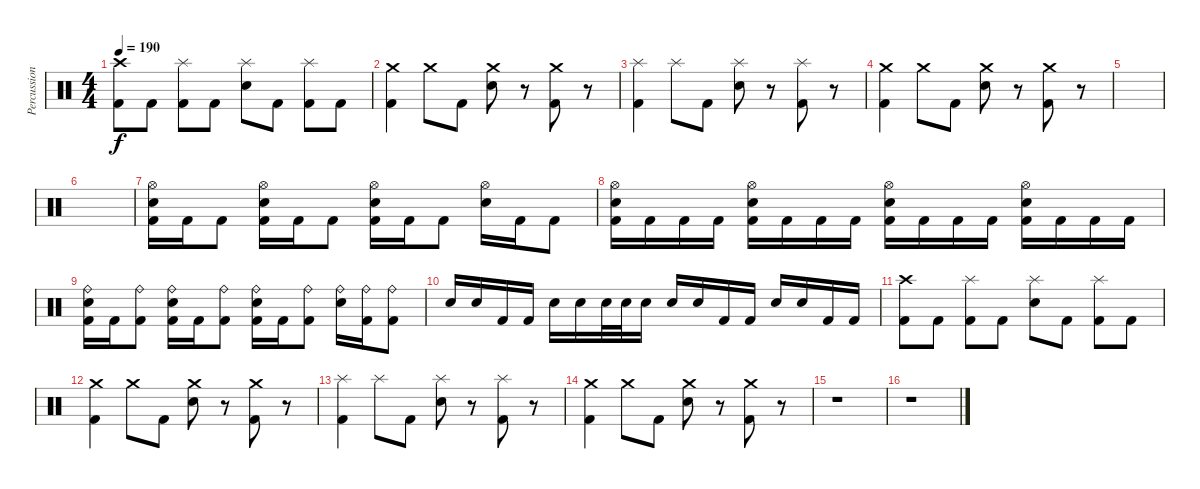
\track ("Percussion" "Percussion") {instrument percussion}
\staff {score}
\articulation defaults
\ts (4 4)
\tempo 190
\clef neutral
\ks c
("Crash high (hit)" "Kick (hit) 2").8{dy f} "Kick (hit) 2".8 ("Splash (hit)" "Kick (hit) 2").8 "Kick (hit) 2".8 ("Splash (hit)" "Electric Snare (hit)").8 "Kick (hit) 2".8 ("Splash (hit)" "Kick (hit) 2").8 "Kick (hit) 2".8 |
("Crash medium (hit)" "Kick (hit) 2").4 "Crash medium (hit)".8 "Kick (hit) 2".8 ("Crash medium (hit)" "Electric Snare (hit)").8 r.8 ("Crash medium (hit)" "Kick (hit) 2").8 r.8 |
("Splash (hit)" "Kick (hit) 2").4 "Splash (hit)".8 "Kick (hit) 2".8 ("Splash (hit)" "Electric Snare (hit)").8 r.8 ("Splash (hit)" "Kick (hit) 2").8 r.8 |
("Crash medium (hit)" "Kick (hit) 2").4 "Crash medium (hit)".8 "Kick (hit) 2".8 ("Crash medium (hit)" "Electric Snare (hit)").8 r.8 ("Crash medium (hit)" "Kick (hit) 2").8 r.8 |
|
|
("Hi-Hat (open)" "Electric Snare (hit)" "Kick (hit) 2").16 "Kick (hit) 2".16 "Kick (hit) 2".8 ("Hi-Hat (open)" "Electric Snare (hit)" "Kick (hit) 2").16 "Kick (hit) 2".16 "Kick (hit) 2".8 ("Hi-Hat (open)" "Electric Snare (hit)" "Kick (hit) 2").16 "Kick (hit) 2".16 "Kick (hit) 2".8 ("Hi-Hat (open)" "Electric Snare (hit)").16 "Kick (hit) 2".16 "Kick (hit) 2".8 |
("Hi-Hat (open)" "Electric Snare (hit)" "Kick (hit) 2").16 "Kick (hit) 2".16 "Kick (hit) 2".16 "Kick (hit) 2".16 ("Hi-Hat (open)" "Electric Snare (hit)" "Kick (hit) 2").16 "Kick (hit) 2".16 "Kick (hit) 2".16 "Kick (hit) 2".16 ("Hi-Hat (open)" "Electric Snare (hit)" "Kick (hit) 2").16 "Kick (hit) 2".16 "Kick (hit) 2".16 "Kick (hit) 2".16 ("Hi-Hat (open)" "Electric Snare (hit)" "Kick (hit) 2").16 "Kick (hit) 2".16 "Kick (hit) 2".16 "Kick (hit) 2".16 |
("Ride (bell)" "Electric Snare (hit)" "Kick (hit) 2").16 "Kick (hit) 2".16 ("Ride (bell)" "Kick (hit) 2").8 ("Ride (bell)" "Electric Snare (hit)" "Kick (hit) 2").16 "Kick (hit) 2".16 ("Ride (bell)" "Kick (hit) 2").8 ("Ride (bell)" "Electric Snare (hit)" "Kick (hit) 2").16 "Kick (hit) 2".16 ("Ride (bell)" "Kick (hit) 2").8 ("Ride (bell)" "Electric Snare (hit)").16 ("Ride (bell)" "Kick (hit) 2").16 ("Ride (bell)" "Kick (hit) 2").8 |
"Electric Snare (hit)".16 "Electric Snare (hit)".16 "Kick (hit) 2".16 "Kick (hit) 2".16 "Electric Snare (hit)".16 "Electric Snare (hit)".16 "Electric Snare (hit)".32 "Electric Snare (hit)".32 "Electric Snare (hit)".16 "Electric Snare (hit)".16 "Electric Snare (hit)".16 "Kick (hit) 2".16 "Kick (hit) 2".16 "Electric Snare (hit)".16 "Electric Snare (hit)".16 "Kick (hit) 2".16 "Kick (hit) 2".16 |
("Crash high (hit)" "Kick (hit) 2").8 "Kick (hit) 2".8 ("Splash (hit)" "Kick (hit) 2").8 "Kick (hit) 2".8 ("Splash (hit)" "Electric Snare (hit)").8 "Kick (hit) 2".8 ("Splash (hit)" "Kick (hit) 2").8 "Kick (hit) 2".8 |
("Crash medium (hit)" "Kick (hit) 2").4 "Crash medium (hit)".8 "Kick (hit) 2".8 ("Crash medium (hit)" "Electric Snare (hit)").8 r.8 ("Crash medium (hit)" "Kick (hit) 2").8 r.8 |
("Splash (hit)" "Kick (hit) 2").4 "Splash (hit)".8 "Kick (hit) 2".8 ("Splash (hit)" "Electric Snare (hit)").8 r.8 ("Splash (hit)" "Kick (hit) 2").8 r.8 |
("Crash medium (hit)" "Kick (hit) 2").4 "Crash medium (hit)".8 "Kick (hit) 2".8 ("Crash medium (hit)" "Electric Snare (hit)").8 r.8 ("Crash medium (hit)" "Kick (hit) 2").8 r.8 |
r.1 |
r.1
